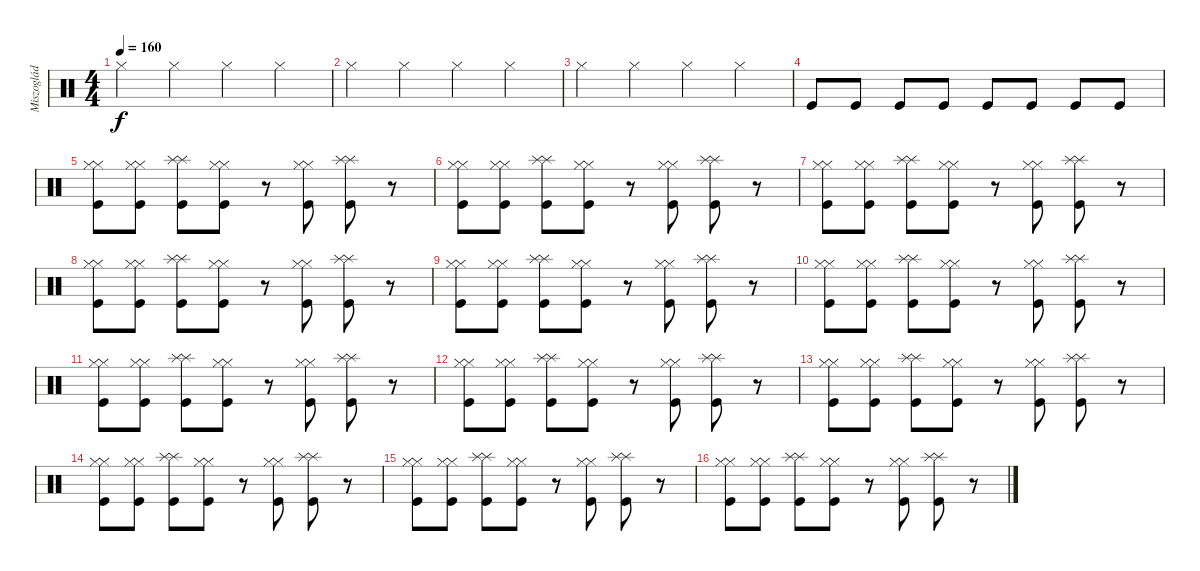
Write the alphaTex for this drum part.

\track ("Miszoglád Henrik - Dob" "Miszoglád ") {instrument percussion}
\staff {score}
\articulation defaults
\ts (4 4)
\tempo 160
\clef neutral
\ks c "Hi-Hat (closed)".4{dy f} "Hi-Hat (closed)".4 "Hi-Hat (closed)".4 "Hi-Hat (closed)".4
|
"Hi-Hat (closed)".4 "Hi-Hat (closed)".4 "Hi-Hat (closed)".4 "Hi-Hat (closed)".4 |
"Hi-Hat (closed)".4 "Hi-Hat (closed)".4 "Hi-Hat (closed)".4 "Hi-Hat (closed)".4 |
"Kick (hit)".8 "Kick (hit)".8 "Kick (hit)".8 "Kick (hit)".8 "Kick (hit)".8 "Kick (hit)".8 "Kick (hit)".8 "Kick (hit)".8 |
("Kick (hit)" "Hi-Hat (closed)" "Hi-Hat (closed)").8 ("Kick (hit)" "Hi-Hat (closed)" "Hi-Hat (closed)").8 ("Splash (hit)" "Splash (hit)" "Kick (hit)").8 ("Kick (hit)" "Hi-Hat (closed)" "Hi-Hat (closed)").8 r.8 ("Kick (hit)" "Hi-Hat (closed)" "Hi-Hat (closed)").8 ("Splash (hit)" "Splash (hit)" "Kick (hit)").8 r.8 |
("Kick (hit)" "Hi-Hat (closed)" "Hi-Hat (closed)").8 ("Kick (hit)" "Hi-Hat (closed)" "Hi-Hat (closed)").8 ("Splash (hit)" "Splash (hit)" "Kick (hit)").8 ("Kick (hit)" "Hi-Hat (closed)" "Hi-Hat (closed)").8 r.8 ("Kick (hit)" "Hi-Hat (closed)" "Hi-Hat (closed)").8 ("Splash (hit)" "Splash (hit)" "Kick (hit)").8 r.8 |
("Kick (hit)" "Hi-Hat (closed)" "Hi-Hat (closed)").8 ("Kick (hit)" "Hi-Hat (closed)" "Hi-Hat (closed)").8 ("Splash (hit)" "Splash (hit)" "Kick (hit)").8 ("Kick (hit)" "Hi-Hat (closed)" "Hi-Hat (closed)").8 r.8 ("Kick (hit)" "Hi-Hat (closed)" "Hi-Hat (closed)").8 ("Splash (hit)" "Splash (hit)" "Kick (hit)").8 r.8 |
("Kick (hit)" "Hi-Hat (closed)" "Hi-Hat (closed)").8 ("Kick (hit)" "Hi-Hat (closed)" "Hi-Hat (closed)").8 ("Splash (hit)" "Splash (hit)" "Kick (hit)").8 ("Kick (hit)" "Hi-Hat (closed)" "Hi-Hat (closed)").8 r.8 ("Kick (hit)" "Hi-Hat (closed)" "Hi-Hat (closed)").8 ("Splash (hit)" "Splash (hit)" "Kick (hit)").8 r.8 |
("Kick (hit)" "Hi-Hat (closed)" "Hi-Hat (closed)").8 ("Kick (hit)" "Hi-Hat (closed)" "Hi-Hat (closed)").8 ("Splash (hit)" "Splash (hit)" "Kick (hit)").8 ("Kick (hit)" "Hi-Hat (closed)" "Hi-Hat (closed)").8 r.8 ("Kick (hit)" "Hi-Hat (closed)" "Hi-Hat (closed)").8 ("Splash (hit)" "Splash (hit)" "Kick (hit)").8 r.8 |
("Kick (hit)" "Hi-Hat (closed)" "Hi-Hat (closed)").8 ("Kick (hit)" "Hi-Hat (closed)" "Hi-Hat (closed)").8 ("Splash (hit)" "Splash (hit)" "Kick (hit)").8 ("Kick (hit)" "Hi-Hat (closed)" "Hi-Hat (closed)").8 r.8 ("Kick (hit)" "Hi-Hat (closed)" "Hi-Hat (closed)").8 ("Splash (hit)" "Splash (hit)" "Kick (hit)").8 r.8 |
("Kick (hit)" "Hi-Hat (closed)" "Hi-Hat (closed)").8 ("Kick (hit)" "Hi-Hat (closed)" "Hi-Hat (closed)").8 ("Splash (hit)" "Splash (hit)" "Kick (hit)").8 ("Kick (hit)" "Hi-Hat (closed)" "Hi-Hat (closed)").8 r.8 ("Kick (hit)" "Hi-Hat (closed)" "Hi-Hat (closed)").8 ("Splash (hit)" "Splash (hit)" "Kick (hit)").8 r.8 |
("Kick (hit)" "Hi-Hat (closed)" "Hi-Hat (closed)").8 ("Kick (hit)" "Hi-Hat (closed)" "Hi-Hat (closed)").8 ("Splash (hit)" "Splash (hit)" "Kick (hit)").8 ("Kick (hit)" "Hi-Hat (closed)" "Hi-Hat (closed)").8 r.8 ("Kick (hit)" "Hi-Hat (closed)" "Hi-Hat (closed)").8 ("Splash (hit)" "Splash (hit)" "Kick (hit)").8 r.8 |
("Kick (hit)" "Hi-Hat (closed)" "Hi-Hat (closed)").8 ("Kick (hit)" "Hi-Hat (closed)" "Hi-Hat (closed)").8 ("Splash (hit)" "Splash (hit)" "Kick (hit)").8 ("Kick (hit)" "Hi-Hat (closed)" "Hi-Hat (closed)").8 r.8 ("Kick (hit)" "Hi-Hat (closed)" "Hi-Hat (closed)").8 ("Splash (hit)" "Splash (hit)" "Kick (hit)").8 r.8 |
("Kick (hit)" "Hi-Hat (closed)" "Hi-Hat (closed)").8 ("Kick (hit)" "Hi-Hat (closed)" "Hi-Hat (closed)").8 ("Splash (hit)" "Splash (hit)" "Kick (hit)").8 ("Kick (hit)" "Hi-Hat (closed)" "Hi-Hat (closed)").8 r.8 ("Kick (hit)" "Hi-Hat (closed)" "Hi-Hat (closed)").8 ("Splash (hit)" "Splash (hit)" "Kick (hit)").8 r.8 |
("Kick (hit)" "Hi-Hat (closed)" "Hi-Hat (closed)").8 ("Kick (hit)" "Hi-Hat (closed)" "Hi-Hat (closed)").8 ("Splash (hit)" "Splash (hit)" "Kick (hit)").8 ("Kick (hit)" "Hi-Hat (closed)" "Hi-Hat (closed)").8 r.8 ("Kick (hit)" "Hi-Hat (closed)" "Hi-Hat (closed)").8 ("Splash (hit)" "Splash (hit)" "Kick (hit)").8 r.8 |
("Kick (hit)" "Hi-Hat (closed)" "Hi-Hat (closed)").8 ("Kick (hit)" "Hi-Hat (closed)" "Hi-Hat (closed)").8 ("Splash (hit)" "Splash (hit)" "Kick (hit)").8 ("Kick (hit)" "Hi-Hat (closed)" "Hi-Hat (closed)").8 r.8 ("Kick (hit)" "Hi-Hat (closed)" "Hi-Hat (closed)").8 ("Splash (hit)" "Splash (hit)" "Kick (hit)").8 r.8
